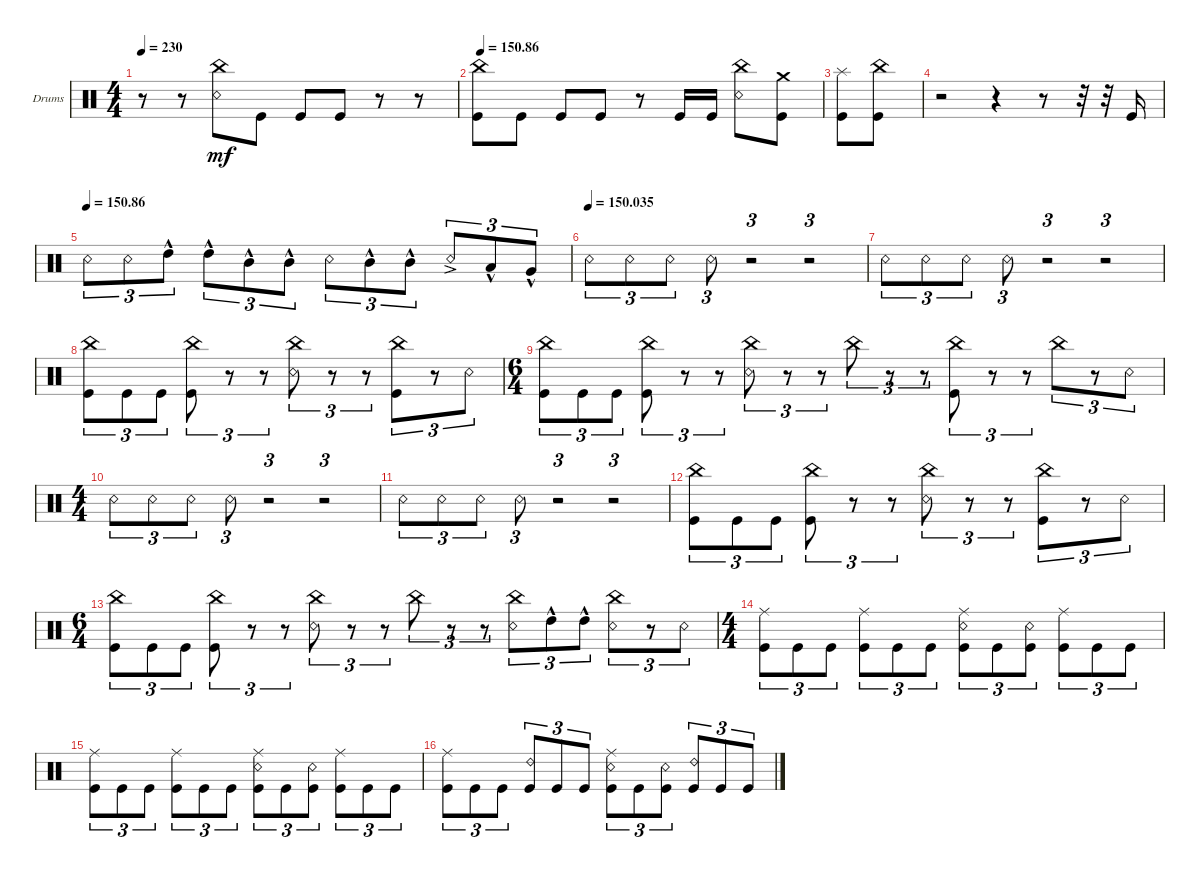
\bracketExtendMode groupsimilarinstruments
\firstSystemTrackNameOrientation horizontal
\otherSystemsTrackNameOrientation horizontal
\track ("Drumkit" "Drums") {solo instrument percussion}
\staff {score}
\articulation defaults
\ts (4 4)
\tempo 230
\clef neutral
\ks c
r.8{dy mf} r.8 ("Snare (rim shot)" "China (hit)").8 "Kick (hit)".8 "Kick (hit)".8 "Kick (hit)".8 r.8 r.8 |
\tempo
150.86 ("Kick (hit)" "China (hit)").8 "Kick (hit)".8 "Kick (hit)".8 "Kick (hit)".8 r.8 "Kick (hit)".16 "Kick (hit)".16 ("Snare (rim shot)" "China (hit)").8 ("Kick (hit)" "Crash medium (hit)").8 |
("Kick (hit)" "Splash (hit)").8 ("Kick (hit)" "China (hit)").8 |
r.2 r.4 r.8 r.32 r.32 "Kick (hit)".16 |
\tempo (150.86)
"Snare (rim shot)".8{tu (3 2)} "Snare (rim shot)".8{tu (3 2)} "High Tom (hit)"{hac}.8{tu (3 2)} "High Tom (hit)"{hac}.8{tu (3 2)} "Mid Tom (hit)"{hac}.8{tu (3 2)} "Mid Tom (hit)"{hac}.8{tu (3 2)} "Snare (rim shot)".8{tu (3 2)} "Mid Tom (hit)"{hac}.8{tu (3 2)} "Mid Tom (hit)"{hac}.8{tu (3 2)} "Snare (rim shot)"{ac}.8{tu (3 2)} "Low Tom (hit)"{hac}.8{tu (3 2)} "Very Low Tom (hit)"{hac}.8{tu (3 2)} |
\tempo (150.035)
"Snare (rim shot)".8{tu (3 2)} "Snare (rim shot)".8{tu (3 2)} "Snare (rim shot)".8{tu (3 2)} "Snare (rim shot)".8{tu (3 2)} r.2{tu (3 2)} r.2{tu (3 2)} |
"Snare (rim shot)".8{tu (3 2)} "Snare (rim shot)".8{tu (3 2)} "Snare (rim shot)".8{tu (3 2)} "Snare (rim shot)".8{tu (3 2)} r.2{tu (3 2)} r.2{tu (3 2)} |
("Kick (hit)" "China (hit)").8{tu (3 2)} "Kick (hit)".8{tu (3 2)} "Kick (hit)".8{tu (3 2)} ("Kick (hit)" "China (hit)").8{tu (3 2)} r.8{tu (3 2)} r.8{tu (3 2)} ("Snare (rim shot)" "China (hit)").8{tu (3 2)} r.8{tu (3 2)} r.8{tu (3 2)} ("Kick (hit)" "China (hit)").8{tu (3 2)} r.8{tu (3 2)} "Snare (rim shot)".8{tu (3 2)} |
\ts (6 4)
("Kick (hit)" "China (hit)").8{tu (3 2)} "Kick (hit)".8{tu (3 2)} "Kick (hit)".8{tu (3 2)} ("Kick (hit)" "China (hit)").8{tu (3 2)} r.8{tu (3 2)} r.8{tu (3 2)} ("Snare (rim shot)" "China (hit)").8{tu (3 2)} r.8{tu (3 2)} r.8{tu (3 2)} "China (hit)".8{tu (3 2)} r.8{tu (3 2)} r.8{tu (3 2)} ("China (hit)" "Kick (hit)").8{tu (3 2)} r.8{tu (3 2)} r.8{tu (3 2)} "China (hit)".8{tu (3 2)} r.8{tu (3 2)} "Snare (rim shot)".8{tu (3 2)} |
\ts (4 4)
"Snare (rim shot)".8{tu (3 2)} "Snare (rim shot)".8{tu (3 2)} "Snare (rim shot)".8{tu (3 2)} "Snare (rim shot)".8{tu (3 2)} r.2{tu (3 2)} r.2{tu (3 2)} |
"Snare (rim shot)".8{tu (3 2)} "Snare (rim shot)".8{tu (3 2)} "Snare (rim shot)".8{tu (3 2)} "Snare (rim shot)".8{tu (3 2)} r.2{tu (3 2)} r.2{tu (3 2)} |
("Kick (hit)" "China (hit)").8{tu (3 2)} "Kick (hit)".8{tu (3 2)} "Kick (hit)".8{tu (3 2)} ("Kick (hit)" "China (hit)").8{tu (3 2)} r.8{tu (3 2)} r.8{tu (3 2)} ("Snare (rim shot)" "China (hit)").8{tu (3 2)} r.8{tu (3 2)} r.8{tu (3 2)} ("Kick (hit)" "China (hit)").8{tu (3 2)} r.8{tu (3 2)} "Snare (rim shot)".8{tu (3 2)} |
\ts (6 4)
("Kick (hit)" "China (hit)").8{tu (3 2)} "Kick (hit)".8{tu (3 2)} "Kick (hit)".8{tu (3 2)} ("Kick (hit)" "China (hit)").8{tu (3 2)} r.8{tu (3 2)} r.8{tu (3 2)} ("Snare (rim shot)" "China (hit)").8{tu (3 2)} r.8{tu (3 2)} r.8{tu (3 2)} "China (hit)".8{tu (3 2)} r.8{tu (3 2)} r.8{tu (3 2)} ("China (hit)" "Snare (rim shot)").8{tu (3 2)} "High Tom (hit)"{hac}.8{tu (3 2)} "High Tom (hit)"{hac}.8{tu (3 2)} ("China (hit)" "Snare (rim shot)").8{tu (3 2)} r.8{tu (3 2)} "Snare (rim shot)".8{tu (3 2)} |
\ts (4 4)
("Kick (hit)" "Ride (middle)").8{tu (3 2)} "Kick (hit)".8{tu (3 2)} "Kick (hit)".8{tu (3 2)} ("Kick (hit)" "Ride (middle)").8{tu (3 2)} "Kick (hit)".8{tu (3 2)} "Kick (hit)".8{tu (3 2)} ("Kick (hit)" "Ride (middle)" "Snare (rim shot)").8{tu (3 2)} "Kick (hit)".8{tu (3 2)} ("Kick (hit)" "Snare (rim shot)").8{tu (3 2)} ("Kick (hit)" "Ride (middle)").8{tu (3 2)} "Kick (hit)".8{tu (3 2)} "Kick (hit)".8{tu (3 2)} |
("Kick (hit)" "Ride (middle)").8{tu (3 2)} "Kick (hit)".8{tu (3 2)} "Kick (hit)".8{tu (3 2)} ("Kick (hit)" "Ride (middle)").8{tu (3 2)} "Kick (hit)".8{tu (3 2)} "Kick (hit)".8{tu (3 2)} ("Kick (hit)" "Ride (middle)" "Snare (rim shot)").8{tu (3 2)} "Kick (hit)".8{tu (3 2)} ("Kick (hit)" "Snare (rim shot)").8{tu (3 2)} ("Kick (hit)" "Ride (middle)").8{tu (3 2)} "Kick (hit)".8{tu (3 2)} "Kick (hit)".8{tu (3 2)} |
("Kick (hit)" "Ride (middle)").8{tu (3 2)} "Kick (hit)".8{tu (3 2)} "Kick (hit)".8{tu (3 2)} ("Kick (hit)" "Ride (bell) 2").8{tu (3 2)} "Kick (hit)".8{tu (3 2)} "Kick (hit)".8{tu (3 2)} ("Kick (hit)" "Ride (middle)" "Snare (rim shot)").8{tu (3 2)} "Kick (hit)".8{tu (3 2)} ("Kick (hit)" "Snare (rim shot)").8{tu (3 2)} ("Kick (hit)" "Ride (bell) 2").8{tu (3 2)} "Kick (hit)".8{tu (3 2)} "Kick (hit)".8{tu (3 2)}
